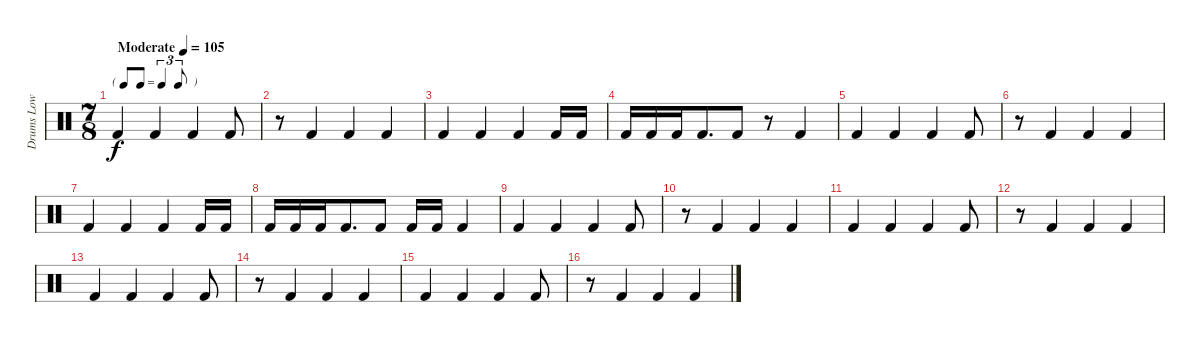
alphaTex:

\track ("Drums Low" "Drums Low") {instrument percussion}
\staff {score}
\articulation defaults
\ts (7 8)
\tf triplet8th
\tempo (105 "Moderate")
\clef neutral
\ks c "Kick (hit) 2".4{dy f} "Kick (hit) 2".4 "Kick (hit) 2".4 "Kick (hit) 2".8
|
r.8 "Kick (hit) 2".4 "Kick (hit) 2".4 "Kick (hit) 2".4 |
"Kick (hit) 2".4 "Kick (hit) 2".4 "Kick (hit) 2".4 "Kick (hit) 2".16 "Kick (hit) 2".16 |
"Kick (hit) 2".16 "Kick (hit) 2".16 "Kick (hit) 2".16 "Kick (hit) 2".8{d} "Kick (hit) 2".8 r.8 "Kick (hit) 2".4 |
"Kick (hit) 2".4 "Kick (hit) 2".4 "Kick (hit) 2".4 "Kick (hit) 2".8 |
r.8 "Kick (hit) 2".4 "Kick (hit) 2".4 "Kick (hit) 2".4 |
"Kick (hit) 2".4 "Kick (hit) 2".4 "Kick (hit) 2".4 "Kick (hit) 2".16 "Kick (hit) 2".16 |
"Kick (hit) 2".16 "Kick (hit) 2".16 "Kick (hit) 2".16 "Kick (hit) 2".8{d} "Kick (hit) 2".8 "Kick (hit) 2".16 "Kick (hit) 2".16 "Kick (hit) 2".4 |
"Kick (hit) 2".4 "Kick (hit) 2".4 "Kick (hit) 2".4 "Kick (hit) 2".8 |
r.8 "Kick (hit) 2".4 "Kick (hit) 2".4 "Kick (hit) 2".4 |
"Kick (hit) 2".4 "Kick (hit) 2".4 "Kick (hit) 2".4 "Kick (hit) 2".8 |
r.8 "Kick (hit) 2".4 "Kick (hit) 2".4 "Kick (hit) 2".4 |
"Kick (hit) 2".4 "Kick (hit) 2".4 "Kick (hit) 2".4 "Kick (hit) 2".8 |
r.8 "Kick (hit) 2".4 "Kick (hit) 2".4 "Kick (hit) 2".4 |
"Kick (hit) 2".4 "Kick (hit) 2".4 "Kick (hit) 2".4 "Kick (hit) 2".8 |
r.8 "Kick (hit) 2".4 "Kick (hit) 2".4 "Kick (hit) 2".4
